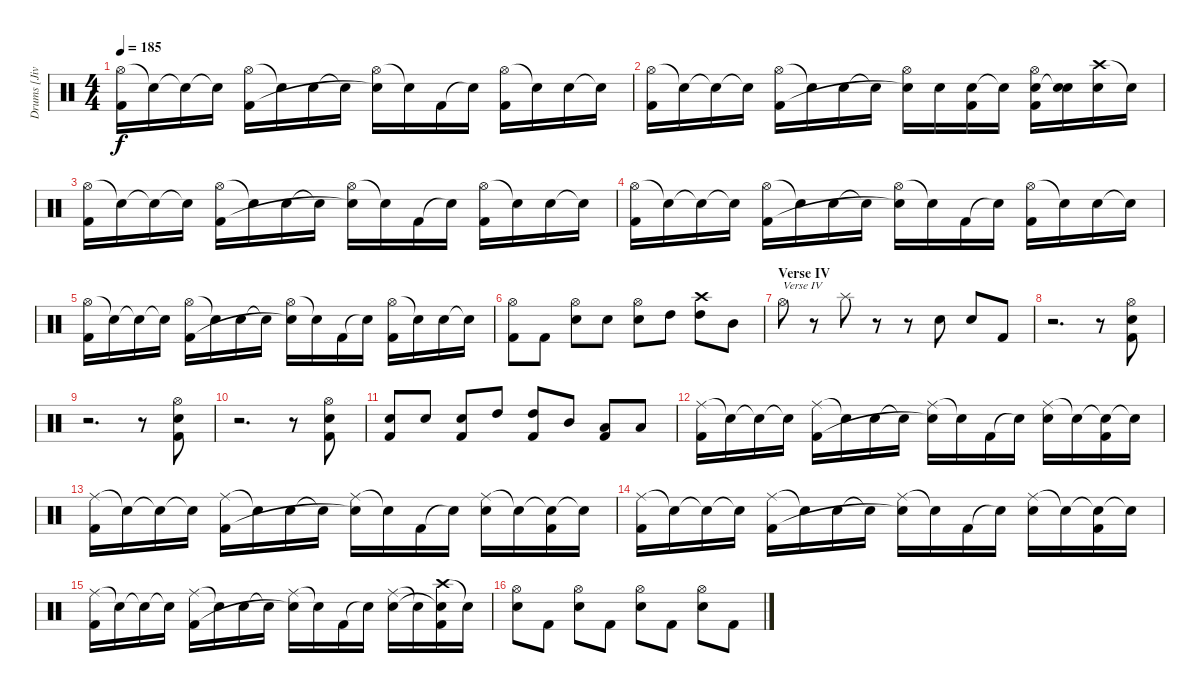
\track ("Drums [Jivarp]" "Drums [Jiv") {instrument percussion}
\staff {score}
\articulation defaults
\ts (4 4)
\tempo 185
\clef neutral
\ks c
("Hi-Hat (open)" "Kick (hit) 2").16{dy f} "Snare (hit)"{t}.16 "Snare (hit)"{t}.16 "Snare (hit)"{t}.16 ("Hi-Hat (open)" "Kick (hit) 2").16 "Snare (hit)"{t}.16 "Electric Snare (hit)".16 "Snare (hit)"{t}.16 ("Hi-Hat (open)" "Snare (hit)"{t}).16 "Snare (hit)"{t}.16 "Kick (hit) 2".16 "Snare (hit)"{t}.16 ("Hi-Hat (open)" "Kick (hit) 2").16 "Snare (hit)"{t}.16 "Electric Snare (hit)".16 "Snare (hit)"{t}.16 |
("Hi-Hat (open)" "Kick (hit) 2").16 "Snare (hit)"{t}.16 "Snare (hit)"{t}.16 "Snare (hit)"{t}.16 ("Hi-Hat (open)" "Kick (hit) 2").16 "Snare (hit)"{t}.16 "Electric Snare (hit)".16 "Snare (hit)"{t}.16 ("Hi-Hat (open)" "Snare (hit)"{t}).16 "Electric Snare (hit)".16 ("Electric Snare (hit)" "Kick (hit) 2").16 "Snare (hit)"{t}.16 ("Hi-Hat (open)" "Electric Snare (hit)" "Kick (hit) 2").16 ("Electric Snare (hit)" "Snare (hit)"{t}).16 ("Crash high (hit)" "Electric Snare (hit)").16 "Snare (hit)"{t}.16 |
("Hi-Hat (open)" "Kick (hit) 2").16 "Snare (hit)"{t}.16 "Snare (hit)"{t}.16 "Snare (hit)"{t}.16 ("Hi-Hat (open)" "Kick (hit) 2").16 "Snare (hit)"{t}.16 "Electric Snare (hit)".16 "Snare (hit)"{t}.16 ("Hi-Hat (open)" "Snare (hit)"{t}).16 "Snare (hit)"{t}.16 "Kick (hit) 2".16 "Snare (hit)"{t}.16 ("Hi-Hat (open)" "Kick (hit) 2").16 "Snare (hit)"{t}.16 "Electric Snare (hit)".16 "Snare (hit)"{t}.16 |
("Hi-Hat (open)" "Kick (hit) 2").16 "Snare (hit)"{t}.16 "Snare (hit)"{t}.16 "Snare (hit)"{t}.16 ("Hi-Hat (open)" "Kick (hit) 2").16 "Snare (hit)"{t}.16 "Electric Snare (hit)".16 "Snare (hit)"{t}.16 ("Hi-Hat (open)" "Snare (hit)"{t}).16 "Snare (hit)"{t}.16 "Kick (hit) 2".16 "Snare (hit)"{t}.16 ("Hi-Hat (open)" "Kick (hit) 2").16 "Snare (hit)"{t}.16 "Electric Snare (hit)".16 "Snare (hit)"{t}.16 |
("Hi-Hat (open)" "Kick (hit) 2").16 "Snare (hit)"{t}.16 "Snare (hit)"{t}.16 "Snare (hit)"{t}.16 ("Hi-Hat (open)" "Kick (hit) 2").16 "Snare (hit)"{t}.16 "Electric Snare (hit)".16 "Snare (hit)"{t}.16 ("Hi-Hat (open)" "Snare (hit)"{t}).16 "Snare (hit)"{t}.16 "Kick (hit) 2".16 "Snare (hit)"{t}.16 ("Hi-Hat (open)" "Kick (hit) 2").16 "Snare (hit)"{t}.16 "Electric Snare (hit)".16 "Snare (hit)"{t}.16 |
("Hi-Hat (open)" "Kick (hit) 2").8 "Kick (hit) 2".8 ("Hi-Hat (open)" "Electric Snare (hit)").8 "Electric Snare (hit)".8 ("Hi-Hat (open)" "Electric Snare (hit)").8 "High Tom (hit)".8 ("Crash high (hit)" "High Tom (hit)").8 "Mid Tom (hit)".8 |
\section ("" "Verse IV")
"Hi-Hat (open)".8{txt "Verse IV"} r.8 "Splash (hit)".8 r.8 r.8 "Electric Snare (hit)".8 "Electric Snare (hit)".8 "Kick (hit) 2".8 |
r.2{d} r.8 ("Hi-Hat (open)" "Electric Snare (hit)" "Kick (hit) 2").8 |
r.2{d} r.8 ("Hi-Hat (open)" "Electric Snare (hit)" "Kick (hit) 2").8 |
r.2{d} r.8 ("Hi-Hat (open)" "Electric Snare (hit)" "Kick (hit) 2").8 |
("Electric Snare (hit)" "Kick (hit) 2").8 "Electric Snare (hit)".8 ("Electric Snare (hit)" "Kick (hit) 2").8 "High Tom (hit)".8 ("High Tom (hit)" "Kick (hit) 2").8 "Mid Tom (hit)".8 ("Low Tom (hit)" "Kick (hit) 2").8 "Low Tom (hit)".8 |
("Ride (middle)" "Kick (hit) 2").16 "Snare (hit)"{t}.16 "Snare (hit)"{t}.16 "Snare (hit)"{t}.16 ("Ride (middle)" "Kick (hit) 2").16 "Snare (hit)"{t}.16 "Electric Snare (hit)".16 "Snare (hit)"{t}.16 ("Ride (middle)" "Snare (hit)"{t}).16 "Snare (hit)"{t}.16 "Kick (hit) 2".16 "Snare (hit)"{t}.16 ("Ride (middle)" "Electric Snare (hit)").16 "Snare (hit)"{t}.16 ("Snare (hit)"{t} "Kick (hit) 2").16 "Snare (hit)"{t}.16 |
("Ride (middle)" "Kick (hit) 2").16 "Snare (hit)"{t}.16 "Snare (hit)"{t}.16 "Snare (hit)"{t}.16 ("Ride (middle)" "Kick (hit) 2").16 "Snare (hit)"{t}.16 "Electric Snare (hit)".16 "Snare (hit)"{t}.16 ("Ride (middle)" "Snare (hit)"{t}).16 "Snare (hit)"{t}.16 "Kick (hit) 2".16 "Snare (hit)"{t}.16 ("Ride (middle)" "Electric Snare (hit)").16 "Snare (hit)"{t}.16 ("Snare (hit)"{t} "Kick (hit) 2").16 "Snare (hit)"{t}.16 |
("Ride (middle)" "Kick (hit) 2").16 "Snare (hit)"{t}.16 "Snare (hit)"{t}.16 "Snare (hit)"{t}.16 ("Ride (middle)" "Kick (hit) 2").16 "Snare (hit)"{t}.16 "Electric Snare (hit)".16 "Snare (hit)"{t}.16 ("Ride (middle)" "Snare (hit)"{t}).16 "Snare (hit)"{t}.16 "Kick (hit) 2".16 "Snare (hit)"{t}.16 ("Ride (middle)" "Electric Snare (hit)").16 "Snare (hit)"{t}.16 ("Snare (hit)"{t} "Kick (hit) 2").16 "Snare (hit)"{t}.16 |
("Ride (middle)" "Kick (hit) 2").16 "Snare (hit)"{t}.16 "Snare (hit)"{t}.16 "Snare (hit)"{t}.16 ("Ride (middle)" "Kick (hit) 2").16 "Snare (hit)"{t}.16 "Electric Snare (hit)".16 "Snare (hit)"{t}.16 ("Ride (middle)" "Snare (hit)"{t}).16 "Snare (hit)"{t}.16 "Kick (hit) 2".16 "Snare (hit)"{t}.16 ("Ride (middle)" "Electric Snare (hit)").16 "Snare (hit)"{t}.16 ("Crash high (hit)" "Snare (hit)"{t} "Kick (hit) 2").16 "Snare (hit)"{t}.16 |
("Hi-Hat (open)" "Electric Snare (hit)").8 "Kick (hit) 2".8 ("Hi-Hat (open)" "Electric Snare (hit)").8 "Kick (hit) 2".8 ("Hi-Hat (open)" "Electric Snare (hit)").8 "Kick (hit) 2".8 ("Hi-Hat (open)" "Electric Snare (hit)").8 "Kick (hit) 2".8
